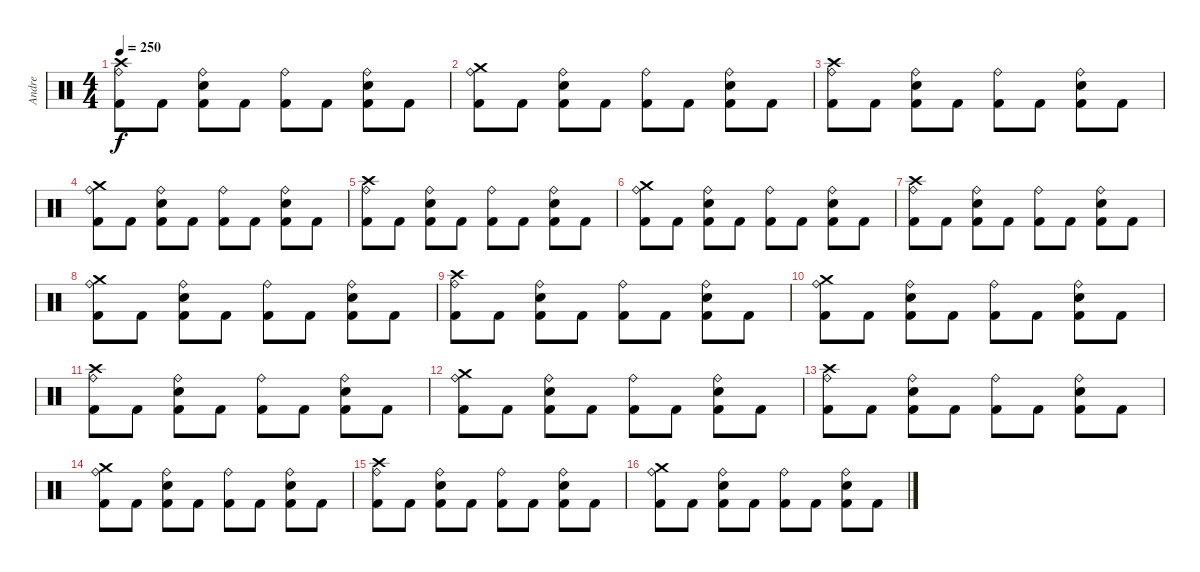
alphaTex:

\track ("Andre" "Andre") {instrument percussion}
\staff {score}
\articulation defaults
\ts (4 4)
\tempo 250
\clef neutral
\ks c
("Crash high (hit)" "Ride (bell)" "Kick (hit) 2").8{dy f} "Kick (hit) 2".8 ("Ride (bell)" "Snare (hit) 2" "Kick (hit) 2").8 "Kick (hit) 2".8 ("Ride (bell)" "Kick (hit) 2").8 "Kick (hit) 2".8 ("Ride (bell)" "Snare (hit) 2" "Kick (hit) 2").8 "Kick (hit) 2".8 |
("Crash medium (hit)" "Ride (bell)" "Kick (hit) 2").8 "Kick (hit) 2".8 ("Ride (bell)" "Snare (hit) 2" "Kick (hit) 2").8 "Kick (hit) 2".8 ("Ride (bell)" "Kick (hit) 2").8 "Kick (hit) 2".8 ("Ride (bell)" "Snare (hit) 2" "Kick (hit) 2").8 "Kick (hit) 2".8 |
("Crash high (hit)" "Ride (bell)" "Kick (hit) 2").8 "Kick (hit) 2".8 ("Ride (bell)" "Snare (hit) 2" "Kick (hit) 2").8 "Kick (hit) 2".8 ("Ride (bell)" "Kick (hit) 2").8 "Kick (hit) 2".8 ("Ride (bell)" "Snare (hit) 2" "Kick (hit) 2").8 "Kick (hit) 2".8 |
("Crash medium (hit)" "Ride (bell)" "Kick (hit) 2").8 "Kick (hit) 2".8 ("Ride (bell)" "Snare (hit) 2" "Kick (hit) 2").8 "Kick (hit) 2".8 ("Ride (bell)" "Kick (hit) 2").8 "Kick (hit) 2".8 ("Ride (bell)" "Snare (hit) 2" "Kick (hit) 2").8 "Kick (hit) 2".8 |
("Crash high (hit)" "Ride (bell)" "Kick (hit) 2").8 "Kick (hit) 2".8 ("Ride (bell)" "Snare (hit) 2" "Kick (hit) 2").8 "Kick (hit) 2".8 ("Ride (bell)" "Kick (hit) 2").8 "Kick (hit) 2".8 ("Ride (bell)" "Snare (hit) 2" "Kick (hit) 2").8 "Kick (hit) 2".8 |
("Crash medium (hit)" "Ride (bell)" "Kick (hit) 2").8 "Kick (hit) 2".8 ("Ride (bell)" "Snare (hit) 2" "Kick (hit) 2").8 "Kick (hit) 2".8 ("Ride (bell)" "Kick (hit) 2").8 "Kick (hit) 2".8 ("Ride (bell)" "Snare (hit) 2" "Kick (hit) 2").8 "Kick (hit) 2".8 |
("Crash high (hit)" "Ride (bell)" "Kick (hit) 2").8 "Kick (hit) 2".8 ("Ride (bell)" "Snare (hit) 2" "Kick (hit) 2").8 "Kick (hit) 2".8 ("Ride (bell)" "Kick (hit) 2").8 "Kick (hit) 2".8 ("Ride (bell)" "Snare (hit) 2" "Kick (hit) 2").8 "Kick (hit) 2".8 |
("Crash medium (hit)" "Ride (bell)" "Kick (hit) 2").8 "Kick (hit) 2".8 ("Ride (bell)" "Snare (hit) 2" "Kick (hit) 2").8 "Kick (hit) 2".8 ("Ride (bell)" "Kick (hit) 2").8 "Kick (hit) 2".8 ("Ride (bell)" "Snare (hit) 2" "Kick (hit) 2").8 "Kick (hit) 2".8 |
("Crash high (hit)" "Ride (bell)" "Kick (hit) 2").8 "Kick (hit) 2".8 ("Ride (bell)" "Snare (hit) 2" "Kick (hit) 2").8 "Kick (hit) 2".8 ("Ride (bell)" "Kick (hit) 2").8 "Kick (hit) 2".8 ("Ride (bell)" "Snare (hit) 2" "Kick (hit) 2").8 "Kick (hit) 2".8 |
("Crash medium (hit)" "Ride (bell)" "Kick (hit) 2").8 "Kick (hit) 2".8 ("Ride (bell)" "Snare (hit) 2" "Kick (hit) 2").8 "Kick (hit) 2".8 ("Ride (bell)" "Kick (hit) 2").8 "Kick (hit) 2".8 ("Ride (bell)" "Snare (hit) 2" "Kick (hit) 2").8 "Kick (hit) 2".8 |
("Crash high (hit)" "Ride (bell)" "Kick (hit) 2").8 "Kick (hit) 2".8 ("Ride (bell)" "Snare (hit) 2" "Kick (hit) 2").8 "Kick (hit) 2".8 ("Ride (bell)" "Kick (hit) 2").8 "Kick (hit) 2".8 ("Ride (bell)" "Snare (hit) 2" "Kick (hit) 2").8 "Kick (hit) 2".8 |
("Crash medium (hit)" "Ride (bell)" "Kick (hit) 2").8 "Kick (hit) 2".8 ("Ride (bell)" "Snare (hit) 2" "Kick (hit) 2").8 "Kick (hit) 2".8 ("Ride (bell)" "Kick (hit) 2").8 "Kick (hit) 2".8 ("Ride (bell)" "Snare (hit) 2" "Kick (hit) 2").8 "Kick (hit) 2".8 |
("Crash high (hit)" "Ride (bell)" "Kick (hit) 2").8 "Kick (hit) 2".8 ("Ride (bell)" "Snare (hit) 2" "Kick (hit) 2").8 "Kick (hit) 2".8 ("Ride (bell)" "Kick (hit) 2").8 "Kick (hit) 2".8 ("Ride (bell)" "Snare (hit) 2" "Kick (hit) 2").8 "Kick (hit) 2".8 |
("Crash medium (hit)" "Ride (bell)" "Kick (hit) 2").8 "Kick (hit) 2".8 ("Ride (bell)" "Snare (hit) 2" "Kick (hit) 2").8 "Kick (hit) 2".8 ("Ride (bell)" "Kick (hit) 2").8 "Kick (hit) 2".8 ("Ride (bell)" "Snare (hit) 2" "Kick (hit) 2").8 "Kick (hit) 2".8 |
("Crash high (hit)" "Ride (bell)" "Kick (hit) 2").8 "Kick (hit) 2".8 ("Ride (bell)" "Snare (hit) 2" "Kick (hit) 2").8 "Kick (hit) 2".8 ("Ride (bell)" "Kick (hit) 2").8 "Kick (hit) 2".8 ("Ride (bell)" "Snare (hit) 2" "Kick (hit) 2").8 "Kick (hit) 2".8 |
("Crash medium (hit)" "Ride (bell)" "Kick (hit) 2").8 "Kick (hit) 2".8 ("Ride (bell)" "Snare (hit) 2" "Kick (hit) 2").8 "Kick (hit) 2".8 ("Ride (bell)" "Kick (hit) 2").8 "Kick (hit) 2".8 ("Ride (bell)" "Snare (hit) 2" "Kick (hit) 2").8 "Kick (hit) 2".8
